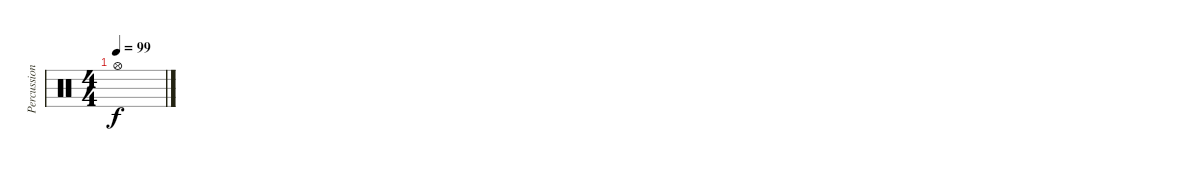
\track ("Percussion" "Percussion") {instrument percussion}
\staff {score}
\articulation defaults
\ts (4 4)
\tempo 99
\clef neutral
\ks c "Hi-Hat (open)"{t}.1{dy f}
